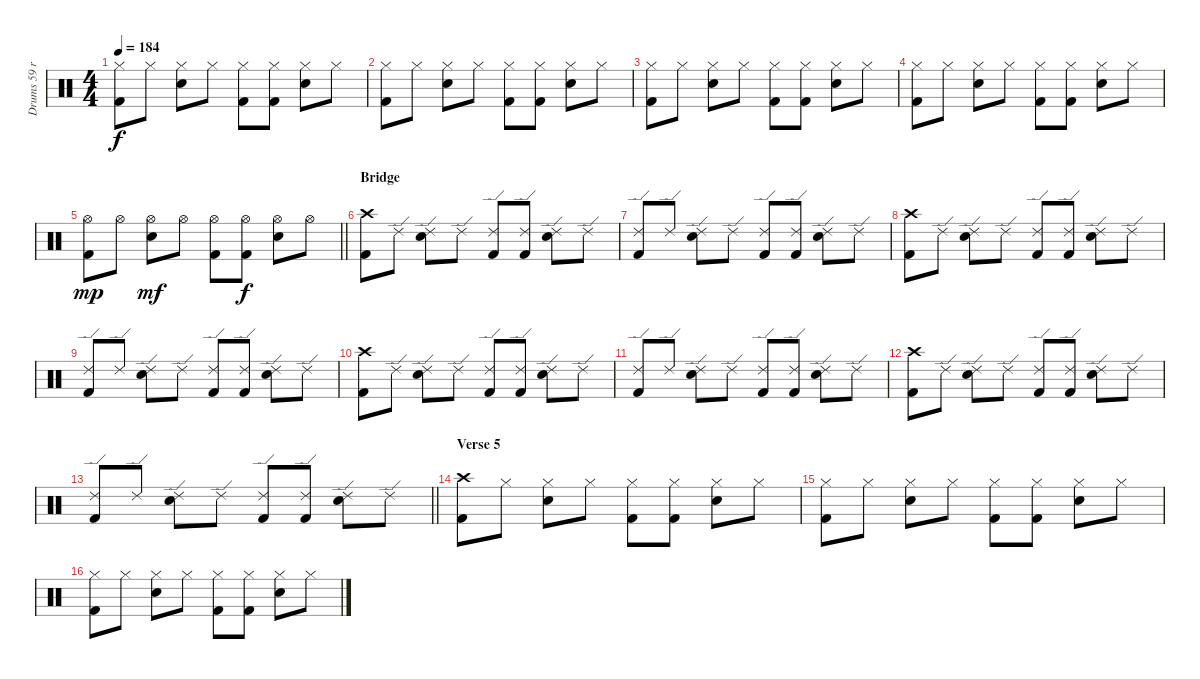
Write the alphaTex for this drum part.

\track ("Drums 59 ride" "Drums 59 r") {mute instrument percussion}
\staff {score}
\articulation defaults
\ts (4 4)
\tempo 184
\clef neutral
\ks c
("Hi-Hat (closed)" "Kick (hit) 2").8{dy f} "Hi-Hat (closed)".8 ("Hi-Hat (closed)" "Snare (hit) 2").8 "Hi-Hat (closed)".8 ("Hi-Hat (closed)" "Kick (hit) 2").8 ("Hi-Hat (closed)" "Kick (hit) 2").8 ("Hi-Hat (closed)" "Snare (hit) 2").8 "Hi-Hat (closed)".8 |
("Hi-Hat (closed)" "Kick (hit) 2").8 "Hi-Hat (closed)".8 ("Hi-Hat (closed)" "Snare (hit) 2").8 "Hi-Hat (closed)".8 ("Hi-Hat (closed)" "Kick (hit) 2").8 ("Hi-Hat (closed)" "Kick (hit) 2").8 ("Hi-Hat (closed)" "Snare (hit) 2").8 "Hi-Hat (closed)".8 |
("Hi-Hat (closed)" "Kick (hit) 2").8 "Hi-Hat (closed)".8 ("Hi-Hat (closed)" "Snare (hit) 2").8 "Hi-Hat (closed)".8 ("Hi-Hat (closed)" "Kick (hit) 2").8 ("Hi-Hat (closed)" "Kick (hit) 2").8 ("Hi-Hat (closed)" "Snare (hit) 2").8 "Hi-Hat (closed)".8 |
("Hi-Hat (closed)" "Kick (hit) 2").8 "Hi-Hat (closed)".8 ("Hi-Hat (closed)" "Snare (hit) 2").8 "Hi-Hat (closed)".8 ("Hi-Hat (closed)" "Kick (hit) 2").8 ("Hi-Hat (closed)" "Kick (hit) 2").8 ("Hi-Hat (closed)" "Snare (hit) 2").8 "Hi-Hat (closed)".8 |
\barLineRight lightlight
("Hi-Hat (open)" "Kick (hit) 2").8{dy mp} "Hi-Hat (open)".8 ("Hi-Hat (open)" "Snare (hit) 2").8{dy mf} "Hi-Hat (open)".8 ("Hi-Hat (open)" "Kick (hit) 2").8 ("Hi-Hat (open)" "Kick (hit) 2").8{dy f} ("Hi-Hat (open)" "Snare (hit) 2").8 "Hi-Hat (open)".8 |
\section ("" "Bridge")
("Crash high (hit)" "Kick (hit) 2").8 "Ride (edge) 2".8 ("Ride (edge) 2" "Snare (hit) 2").8 "Ride (edge) 2".8 ("Ride (edge) 2" "Kick (hit) 2").8 ("Ride (edge) 2" "Kick (hit) 2").8 ("Ride (edge) 2" "Snare (hit) 2").8 "Ride (edge) 2".8 |
("Ride (edge) 2" "Kick (hit) 2").8 "Ride (edge) 2".8 ("Ride (edge) 2" "Snare (hit) 2").8 "Ride (edge) 2".8 ("Ride (edge) 2" "Kick (hit) 2").8 ("Ride (edge) 2" "Kick (hit) 2").8 ("Ride (edge) 2" "Snare (hit) 2").8 "Ride (edge) 2".8 |
("Crash high (hit)" "Kick (hit) 2").8 "Ride (edge) 2".8 ("Ride (edge) 2" "Snare (hit) 2").8 "Ride (edge) 2".8 ("Ride (edge) 2" "Kick (hit) 2").8 ("Ride (edge) 2" "Kick (hit) 2").8 ("Ride (edge) 2" "Snare (hit) 2").8 "Ride (edge) 2".8 |
("Ride (edge) 2" "Kick (hit) 2").8 "Ride (edge) 2".8 ("Ride (edge) 2" "Snare (hit) 2").8 "Ride (edge) 2".8 ("Ride (edge) 2" "Kick (hit) 2").8 ("Ride (edge) 2" "Kick (hit) 2").8 ("Ride (edge) 2" "Snare (hit) 2").8 "Ride (edge) 2".8 |
("Crash high (hit)" "Kick (hit) 2").8 "Ride (edge) 2".8 ("Ride (edge) 2" "Snare (hit) 2").8 "Ride (edge) 2".8 ("Ride (edge) 2" "Kick (hit) 2").8 ("Ride (edge) 2" "Kick (hit) 2").8 ("Ride (edge) 2" "Snare (hit) 2").8 "Ride (edge) 2".8 |
("Ride (edge) 2" "Kick (hit) 2").8 "Ride (edge) 2".8 ("Ride (edge) 2" "Snare (hit) 2").8 "Ride (edge) 2".8 ("Ride (edge) 2" "Kick (hit) 2").8 ("Ride (edge) 2" "Kick (hit) 2").8 ("Ride (edge) 2" "Snare (hit) 2").8 "Ride (edge) 2".8 |
("Crash high (hit)" "Kick (hit) 2").8 "Ride (edge) 2".8 ("Ride (edge) 2" "Snare (hit) 2").8 "Ride (edge) 2".8 ("Ride (edge) 2" "Kick (hit) 2").8 ("Ride (edge) 2" "Kick (hit) 2").8 ("Ride (edge) 2" "Snare (hit) 2").8 "Ride (edge) 2".8 |
\barLineRight lightlight
("Ride (edge) 2" "Kick (hit) 2").8 "Ride (edge) 2".8 ("Ride (edge) 2" "Snare (hit) 2").8 "Ride (edge) 2".8 ("Ride (edge) 2" "Kick (hit) 2").8 ("Ride (edge) 2" "Kick (hit) 2").8 ("Ride (edge) 2" "Snare (hit) 2").8 "Ride (edge) 2".8 |
\section ("" "Verse 5")
("Crash high (hit)" "Kick (hit) 2").8 "Hi-Hat (closed)".8 ("Hi-Hat (closed)" "Snare (hit) 2").8 "Hi-Hat (closed)".8 ("Hi-Hat (closed)" "Kick (hit) 2").8 ("Hi-Hat (closed)" "Kick (hit) 2").8 ("Hi-Hat (closed)" "Snare (hit) 2").8 "Hi-Hat (closed)".8 |
("Hi-Hat (closed)" "Kick (hit) 2").8 "Hi-Hat (closed)".8 ("Hi-Hat (closed)" "Snare (hit) 2").8 "Hi-Hat (closed)".8 ("Hi-Hat (closed)" "Kick (hit) 2").8 ("Hi-Hat (closed)" "Kick (hit) 2").8 ("Hi-Hat (closed)" "Snare (hit) 2").8 "Hi-Hat (closed)".8 |
("Hi-Hat (closed)" "Kick (hit) 2").8 "Hi-Hat (closed)".8 ("Hi-Hat (closed)" "Snare (hit) 2").8 "Hi-Hat (closed)".8 ("Hi-Hat (closed)" "Kick (hit) 2").8 ("Hi-Hat (closed)" "Kick (hit) 2").8 ("Hi-Hat (closed)" "Snare (hit) 2").8 "Hi-Hat (closed)".8
